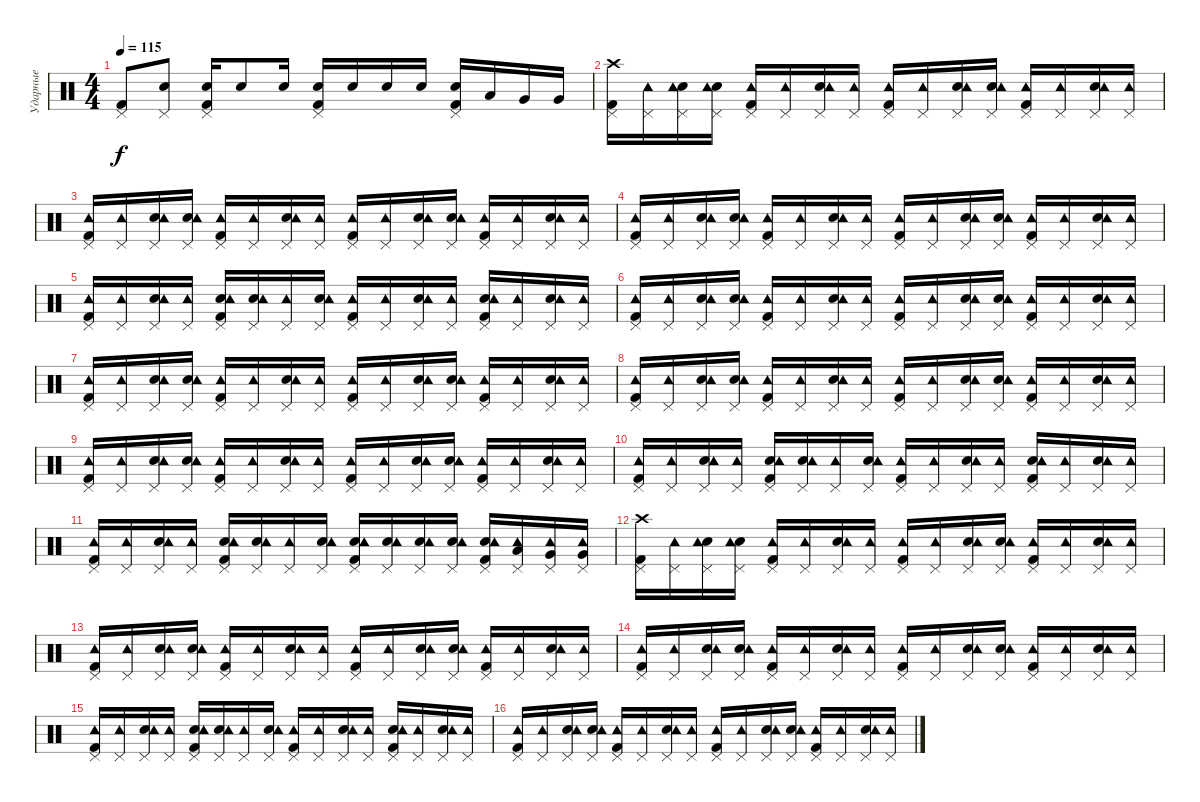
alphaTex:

\track ("Ударные" "Ударные") {instrument percussion}
\staff {score}
\articulation defaults
\ts (4 4)
\tempo 115
\clef neutral
\ks c
("Kick (hit) 2" "Pedal Hi-Hat (hit)").8{dy f} ("Pedal Hi-Hat (hit)" "Snare (hit) 2").8 ("Kick (hit) 2" "Pedal Hi-Hat (hit)" "Snare (hit) 2").16 "Snare (hit) 2".8 "Snare (hit) 2".16 ("Kick (hit) 2" "Pedal Hi-Hat (hit)" "Snare (hit) 2").16 "Snare (hit) 2".16 "Snare (hit) 2".16 "Snare (hit) 2".16 ("Kick (hit) 2" "Pedal Hi-Hat (hit)" "Snare (hit) 2").16 "Low Tom (hit)".16 "Very Low Tom (hit)".16 "Very Low Tom (hit)".16 |
("Kick (hit) 2" "Pedal Hi-Hat (hit)" "Crash high (hit)").16 ("Pedal Hi-Hat (hit)" "Tambourine (hit)").16 ("Pedal Hi-Hat (hit)" "Snare (hit) 2" "Tambourine (hit)").16 ("Pedal Hi-Hat (hit)" "Snare (hit) 2" "Tambourine (hit)").16 ("Kick (hit) 2" "Pedal Hi-Hat (hit)" "Tambourine (hit)").16 ("Pedal Hi-Hat (hit)" "Tambourine (hit)").16 ("Pedal Hi-Hat (hit)" "Snare (hit) 2" "Tambourine (hit)").16 ("Pedal Hi-Hat (hit)" "Tambourine (hit)").16 ("Kick (hit) 2" "Pedal Hi-Hat (hit)" "Tambourine (hit)").16 ("Pedal Hi-Hat (hit)" "Tambourine (hit)").16 ("Pedal Hi-Hat (hit)" "Snare (hit) 2" "Tambourine (hit)").16 ("Pedal Hi-Hat (hit)" "Snare (hit) 2" "Tambourine (hit)").16 ("Kick (hit) 2" "Pedal Hi-Hat (hit)" "Tambourine (hit)").16 ("Pedal Hi-Hat (hit)" "Tambourine (hit)").16 ("Pedal Hi-Hat (hit)" "Snare (hit) 2" "Tambourine (hit)").16 ("Pedal Hi-Hat (hit)" "Tambourine (hit)").16 |
("Kick (hit) 2" "Pedal Hi-Hat (hit)" "Tambourine (hit)").16 ("Pedal Hi-Hat (hit)" "Tambourine (hit)").16 ("Pedal Hi-Hat (hit)" "Snare (hit) 2" "Tambourine (hit)").16 ("Pedal Hi-Hat (hit)" "Snare (hit) 2" "Tambourine (hit)").16 ("Kick (hit) 2" "Pedal Hi-Hat (hit)" "Tambourine (hit)").16 ("Pedal Hi-Hat (hit)" "Tambourine (hit)").16 ("Pedal Hi-Hat (hit)" "Snare (hit) 2" "Tambourine (hit)").16 ("Pedal Hi-Hat (hit)" "Tambourine (hit)").16 ("Kick (hit) 2" "Pedal Hi-Hat (hit)" "Tambourine (hit)").16 ("Pedal Hi-Hat (hit)" "Tambourine (hit)").16 ("Pedal Hi-Hat (hit)" "Snare (hit) 2" "Tambourine (hit)").16 ("Pedal Hi-Hat (hit)" "Snare (hit) 2" "Tambourine (hit)").16 ("Kick (hit) 2" "Pedal Hi-Hat (hit)" "Tambourine (hit)").16 ("Pedal Hi-Hat (hit)" "Tambourine (hit)").16 ("Pedal Hi-Hat (hit)" "Snare (hit) 2" "Tambourine (hit)").16 ("Pedal Hi-Hat (hit)" "Tambourine (hit)").16 |
("Kick (hit) 2" "Pedal Hi-Hat (hit)" "Tambourine (hit)").16 ("Pedal Hi-Hat (hit)" "Tambourine (hit)").16 ("Pedal Hi-Hat (hit)" "Snare (hit) 2" "Tambourine (hit)").16 ("Pedal Hi-Hat (hit)" "Snare (hit) 2" "Tambourine (hit)").16 ("Kick (hit) 2" "Pedal Hi-Hat (hit)" "Tambourine (hit)").16 ("Pedal Hi-Hat (hit)" "Tambourine (hit)").16 ("Pedal Hi-Hat (hit)" "Snare (hit) 2" "Tambourine (hit)").16 ("Pedal Hi-Hat (hit)" "Tambourine (hit)").16 ("Kick (hit) 2" "Pedal Hi-Hat (hit)" "Tambourine (hit)").16 ("Pedal Hi-Hat (hit)" "Tambourine (hit)").16 ("Pedal Hi-Hat (hit)" "Snare (hit) 2" "Tambourine (hit)").16 ("Pedal Hi-Hat (hit)" "Snare (hit) 2" "Tambourine (hit)").16 ("Kick (hit) 2" "Pedal Hi-Hat (hit)" "Tambourine (hit)").16 ("Pedal Hi-Hat (hit)" "Tambourine (hit)").16 ("Pedal Hi-Hat (hit)" "Snare (hit) 2" "Tambourine (hit)").16 ("Pedal Hi-Hat (hit)" "Tambourine (hit)").16 |
("Kick (hit) 2" "Pedal Hi-Hat (hit)" "Tambourine (hit)").16 ("Pedal Hi-Hat (hit)" "Tambourine (hit)").16 ("Pedal Hi-Hat (hit)" "Snare (hit) 2" "Tambourine (hit)").16 ("Pedal Hi-Hat (hit)" "Tambourine (hit)").16 ("Kick (hit) 2" "Pedal Hi-Hat (hit)" "Snare (hit) 2" "Tambourine (hit)").16 ("Pedal Hi-Hat (hit)" "Snare (hit) 2" "Tambourine (hit)").16 ("Pedal Hi-Hat (hit)" "Tambourine (hit)").16 ("Pedal Hi-Hat (hit)" "Snare (hit) 2" "Tambourine (hit)").16 ("Kick (hit) 2" "Pedal Hi-Hat (hit)" "Tambourine (hit)").16 ("Pedal Hi-Hat (hit)" "Tambourine (hit)").16 ("Pedal Hi-Hat (hit)" "Snare (hit) 2" "Tambourine (hit)").16 ("Pedal Hi-Hat (hit)" "Tambourine (hit)").16 ("Kick (hit) 2" "Pedal Hi-Hat (hit)" "Snare (hit) 2" "Tambourine (hit)").16 ("Pedal Hi-Hat (hit)" "Tambourine (hit)").16 ("Pedal Hi-Hat (hit)" "Snare (hit) 2" "Tambourine (hit)").16 ("Pedal Hi-Hat (hit)" "Tambourine (hit)").16 |
("Kick (hit) 2" "Pedal Hi-Hat (hit)" "Tambourine (hit)").16 ("Pedal Hi-Hat (hit)" "Tambourine (hit)").16 ("Pedal Hi-Hat (hit)" "Snare (hit) 2" "Tambourine (hit)").16 ("Pedal Hi-Hat (hit)" "Snare (hit) 2" "Tambourine (hit)").16 ("Kick (hit) 2" "Pedal Hi-Hat (hit)" "Tambourine (hit)").16 ("Pedal Hi-Hat (hit)" "Tambourine (hit)").16 ("Pedal Hi-Hat (hit)" "Snare (hit) 2" "Tambourine (hit)").16 ("Pedal Hi-Hat (hit)" "Tambourine (hit)").16 ("Kick (hit) 2" "Pedal Hi-Hat (hit)" "Tambourine (hit)").16 ("Pedal Hi-Hat (hit)" "Tambourine (hit)").16 ("Pedal Hi-Hat (hit)" "Snare (hit) 2" "Tambourine (hit)").16 ("Pedal Hi-Hat (hit)" "Snare (hit) 2" "Tambourine (hit)").16 ("Kick (hit) 2" "Pedal Hi-Hat (hit)" "Tambourine (hit)").16 ("Pedal Hi-Hat (hit)" "Tambourine (hit)").16 ("Pedal Hi-Hat (hit)" "Snare (hit) 2" "Tambourine (hit)").16 ("Pedal Hi-Hat (hit)" "Tambourine (hit)").16 |
("Kick (hit) 2" "Pedal Hi-Hat (hit)" "Tambourine (hit)").16 ("Pedal Hi-Hat (hit)" "Tambourine (hit)").16 ("Pedal Hi-Hat (hit)" "Snare (hit) 2" "Tambourine (hit)").16 ("Pedal Hi-Hat (hit)" "Snare (hit) 2" "Tambourine (hit)").16 ("Kick (hit) 2" "Pedal Hi-Hat (hit)" "Tambourine (hit)").16 ("Pedal Hi-Hat (hit)" "Tambourine (hit)").16 ("Pedal Hi-Hat (hit)" "Snare (hit) 2" "Tambourine (hit)").16 ("Pedal Hi-Hat (hit)" "Tambourine (hit)").16 ("Kick (hit) 2" "Pedal Hi-Hat (hit)" "Tambourine (hit)").16 ("Pedal Hi-Hat (hit)" "Tambourine (hit)").16 ("Pedal Hi-Hat (hit)" "Snare (hit) 2" "Tambourine (hit)").16 ("Pedal Hi-Hat (hit)" "Snare (hit) 2" "Tambourine (hit)").16 ("Kick (hit) 2" "Pedal Hi-Hat (hit)" "Tambourine (hit)").16 ("Pedal Hi-Hat (hit)" "Tambourine (hit)").16 ("Pedal Hi-Hat (hit)" "Snare (hit) 2" "Tambourine (hit)").16 ("Pedal Hi-Hat (hit)" "Tambourine (hit)").16 |
("Kick (hit) 2" "Pedal Hi-Hat (hit)" "Tambourine (hit)").16 ("Pedal Hi-Hat (hit)" "Tambourine (hit)").16 ("Pedal Hi-Hat (hit)" "Snare (hit) 2" "Tambourine (hit)").16 ("Pedal Hi-Hat (hit)" "Snare (hit) 2" "Tambourine (hit)").16 ("Kick (hit) 2" "Pedal Hi-Hat (hit)" "Tambourine (hit)").16 ("Pedal Hi-Hat (hit)" "Tambourine (hit)").16 ("Pedal Hi-Hat (hit)" "Snare (hit) 2" "Tambourine (hit)").16 ("Pedal Hi-Hat (hit)" "Tambourine (hit)").16 ("Kick (hit) 2" "Pedal Hi-Hat (hit)" "Tambourine (hit)").16 ("Pedal Hi-Hat (hit)" "Tambourine (hit)").16 ("Pedal Hi-Hat (hit)" "Snare (hit) 2" "Tambourine (hit)").16 ("Pedal Hi-Hat (hit)" "Snare (hit) 2" "Tambourine (hit)").16 ("Kick (hit) 2" "Pedal Hi-Hat (hit)" "Tambourine (hit)").16 ("Pedal Hi-Hat (hit)" "Tambourine (hit)").16 ("Pedal Hi-Hat (hit)" "Snare (hit) 2" "Tambourine (hit)").16 ("Pedal Hi-Hat (hit)" "Tambourine (hit)").16 |
("Kick (hit) 2" "Pedal Hi-Hat (hit)" "Tambourine (hit)").16 ("Pedal Hi-Hat (hit)" "Tambourine (hit)").16 ("Pedal Hi-Hat (hit)" "Snare (hit) 2" "Tambourine (hit)").16 ("Pedal Hi-Hat (hit)" "Snare (hit) 2" "Tambourine (hit)").16 ("Kick (hit) 2" "Pedal Hi-Hat (hit)" "Tambourine (hit)").16 ("Pedal Hi-Hat (hit)" "Tambourine (hit)").16 ("Pedal Hi-Hat (hit)" "Snare (hit) 2" "Tambourine (hit)").16 ("Pedal Hi-Hat (hit)" "Tambourine (hit)").16 ("Kick (hit) 2" "Pedal Hi-Hat (hit)" "Tambourine (hit)").16 ("Pedal Hi-Hat (hit)" "Tambourine (hit)").16 ("Pedal Hi-Hat (hit)" "Snare (hit) 2" "Tambourine (hit)").16 ("Pedal Hi-Hat (hit)" "Snare (hit) 2" "Tambourine (hit)").16 ("Kick (hit) 2" "Pedal Hi-Hat (hit)" "Tambourine (hit)").16 ("Pedal Hi-Hat (hit)" "Tambourine (hit)").16 ("Pedal Hi-Hat (hit)" "Snare (hit) 2" "Tambourine (hit)").16 ("Pedal Hi-Hat (hit)" "Tambourine (hit)").16 |
("Kick (hit) 2" "Pedal Hi-Hat (hit)" "Tambourine (hit)").16 ("Pedal Hi-Hat (hit)" "Tambourine (hit)").16 ("Pedal Hi-Hat (hit)" "Snare (hit) 2" "Tambourine (hit)").16 ("Pedal Hi-Hat (hit)" "Tambourine (hit)").16 ("Kick (hit) 2" "Pedal Hi-Hat (hit)" "Snare (hit) 2" "Tambourine (hit)").16 ("Pedal Hi-Hat (hit)" "Snare (hit) 2" "Tambourine (hit)").16 ("Pedal Hi-Hat (hit)" "Tambourine (hit)").16 ("Pedal Hi-Hat (hit)" "Snare (hit) 2" "Tambourine (hit)").16 ("Kick (hit) 2" "Pedal Hi-Hat (hit)" "Tambourine (hit)").16 ("Pedal Hi-Hat (hit)" "Tambourine (hit)").16 ("Pedal Hi-Hat (hit)" "Snare (hit) 2" "Tambourine (hit)").16 ("Pedal Hi-Hat (hit)" "Tambourine (hit)").16 ("Kick (hit) 2" "Pedal Hi-Hat (hit)" "Snare (hit) 2" "Tambourine (hit)").16 ("Pedal Hi-Hat (hit)" "Tambourine (hit)").16 ("Pedal Hi-Hat (hit)" "Snare (hit) 2" "Tambourine (hit)").16 ("Pedal Hi-Hat (hit)" "Tambourine (hit)").16 |
("Kick (hit) 2" "Pedal Hi-Hat (hit)" "Tambourine (hit)").16 ("Pedal Hi-Hat (hit)" "Tambourine (hit)").16 ("Pedal Hi-Hat (hit)" "Snare (hit) 2" "Tambourine (hit)").16 ("Pedal Hi-Hat (hit)" "Tambourine (hit)").16 ("Kick (hit) 2" "Pedal Hi-Hat (hit)" "Snare (hit) 2" "Tambourine (hit)").16 ("Pedal Hi-Hat (hit)" "Snare (hit) 2" "Tambourine (hit)").16 ("Pedal Hi-Hat (hit)" "Tambourine (hit)").16 ("Pedal Hi-Hat (hit)" "Snare (hit) 2" "Tambourine (hit)").16 ("Kick (hit) 2" "Pedal Hi-Hat (hit)" "Snare (hit) 2" "Tambourine (hit)").16 ("Pedal Hi-Hat (hit)" "Snare (hit) 2" "Tambourine (hit)").16 ("Pedal Hi-Hat (hit)" "Snare (hit) 2" "Tambourine (hit)").16 ("Pedal Hi-Hat (hit)" "Snare (hit) 2" "Tambourine (hit)").16 ("Kick (hit) 2" "Pedal Hi-Hat (hit)" "Snare (hit) 2" "Tambourine (hit)").16 ("Pedal Hi-Hat (hit)" "Low Tom (hit)" "Tambourine (hit)").16 ("Pedal Hi-Hat (hit)" "Very Low Tom (hit)" "Tambourine (hit)").16 ("Pedal Hi-Hat (hit)" "Very Low Tom (hit)" "Tambourine (hit)").16 |
("Kick (hit) 2" "Pedal Hi-Hat (hit)" "Crash high (hit)").16 ("Pedal Hi-Hat (hit)" "Tambourine (hit)").16 ("Pedal Hi-Hat (hit)" "Snare (hit) 2" "Tambourine (hit)").16 ("Pedal Hi-Hat (hit)" "Snare (hit) 2" "Tambourine (hit)").16 ("Kick (hit) 2" "Pedal Hi-Hat (hit)" "Tambourine (hit)").16 ("Pedal Hi-Hat (hit)" "Tambourine (hit)").16 ("Pedal Hi-Hat (hit)" "Snare (hit) 2" "Tambourine (hit)").16 ("Pedal Hi-Hat (hit)" "Tambourine (hit)").16 ("Kick (hit) 2" "Pedal Hi-Hat (hit)" "Tambourine (hit)").16 ("Pedal Hi-Hat (hit)" "Tambourine (hit)").16 ("Pedal Hi-Hat (hit)" "Snare (hit) 2" "Tambourine (hit)").16 ("Pedal Hi-Hat (hit)" "Snare (hit) 2" "Tambourine (hit)").16 ("Kick (hit) 2" "Pedal Hi-Hat (hit)" "Tambourine (hit)").16 ("Pedal Hi-Hat (hit)" "Tambourine (hit)").16 ("Pedal Hi-Hat (hit)" "Snare (hit) 2" "Tambourine (hit)").16 ("Pedal Hi-Hat (hit)" "Tambourine (hit)").16 |
("Kick (hit) 2" "Pedal Hi-Hat (hit)" "Tambourine (hit)").16 ("Pedal Hi-Hat (hit)" "Tambourine (hit)").16 ("Pedal Hi-Hat (hit)" "Snare (hit) 2" "Tambourine (hit)").16 ("Pedal Hi-Hat (hit)" "Snare (hit) 2" "Tambourine (hit)").16 ("Kick (hit) 2" "Pedal Hi-Hat (hit)" "Tambourine (hit)").16 ("Pedal Hi-Hat (hit)" "Tambourine (hit)").16 ("Pedal Hi-Hat (hit)" "Snare (hit) 2" "Tambourine (hit)").16 ("Pedal Hi-Hat (hit)" "Tambourine (hit)").16 ("Kick (hit) 2" "Pedal Hi-Hat (hit)" "Tambourine (hit)").16 ("Pedal Hi-Hat (hit)" "Tambourine (hit)").16 ("Pedal Hi-Hat (hit)" "Snare (hit) 2" "Tambourine (hit)").16 ("Pedal Hi-Hat (hit)" "Snare (hit) 2" "Tambourine (hit)").16 ("Kick (hit) 2" "Pedal Hi-Hat (hit)" "Tambourine (hit)").16 ("Pedal Hi-Hat (hit)" "Tambourine (hit)").16 ("Pedal Hi-Hat (hit)" "Snare (hit) 2" "Tambourine (hit)").16 ("Pedal Hi-Hat (hit)" "Tambourine (hit)").16 |
("Kick (hit) 2" "Pedal Hi-Hat (hit)" "Tambourine (hit)").16 ("Pedal Hi-Hat (hit)" "Tambourine (hit)").16 ("Pedal Hi-Hat (hit)" "Snare (hit) 2" "Tambourine (hit)").16 ("Pedal Hi-Hat (hit)" "Snare (hit) 2" "Tambourine (hit)").16 ("Kick (hit) 2" "Pedal Hi-Hat (hit)" "Tambourine (hit)").16 ("Pedal Hi-Hat (hit)" "Tambourine (hit)").16 ("Pedal Hi-Hat (hit)" "Snare (hit) 2" "Tambourine (hit)").16 ("Pedal Hi-Hat (hit)" "Tambourine (hit)").16 ("Kick (hit) 2" "Pedal Hi-Hat (hit)" "Tambourine (hit)").16 ("Pedal Hi-Hat (hit)" "Tambourine (hit)").16 ("Pedal Hi-Hat (hit)" "Snare (hit) 2" "Tambourine (hit)").16 ("Pedal Hi-Hat (hit)" "Snare (hit) 2" "Tambourine (hit)").16 ("Kick (hit) 2" "Pedal Hi-Hat (hit)" "Tambourine (hit)").16 ("Pedal Hi-Hat (hit)" "Tambourine (hit)").16 ("Pedal Hi-Hat (hit)" "Snare (hit) 2" "Tambourine (hit)").16 ("Pedal Hi-Hat (hit)" "Tambourine (hit)").16 |
("Kick (hit) 2" "Pedal Hi-Hat (hit)" "Tambourine (hit)").16 ("Pedal Hi-Hat (hit)" "Tambourine (hit)").16 ("Pedal Hi-Hat (hit)" "Snare (hit) 2" "Tambourine (hit)").16 ("Pedal Hi-Hat (hit)" "Tambourine (hit)").16 ("Kick (hit) 2" "Pedal Hi-Hat (hit)" "Snare (hit) 2" "Tambourine (hit)").16 ("Pedal Hi-Hat (hit)" "Snare (hit) 2" "Tambourine (hit)").16 ("Pedal Hi-Hat (hit)" "Tambourine (hit)").16 ("Pedal Hi-Hat (hit)" "Snare (hit) 2" "Tambourine (hit)").16 ("Kick (hit) 2" "Pedal Hi-Hat (hit)" "Tambourine (hit)").16 ("Pedal Hi-Hat (hit)" "Tambourine (hit)").16 ("Pedal Hi-Hat (hit)" "Snare (hit) 2" "Tambourine (hit)").16 ("Pedal Hi-Hat (hit)" "Tambourine (hit)").16 ("Kick (hit) 2" "Pedal Hi-Hat (hit)" "Snare (hit) 2" "Tambourine (hit)").16 ("Pedal Hi-Hat (hit)" "Tambourine (hit)").16 ("Pedal Hi-Hat (hit)" "Snare (hit) 2" "Tambourine (hit)").16 ("Pedal Hi-Hat (hit)" "Tambourine (hit)").16 |
("Kick (hit) 2" "Pedal Hi-Hat (hit)" "Tambourine (hit)").16 ("Pedal Hi-Hat (hit)" "Tambourine (hit)").16 ("Pedal Hi-Hat (hit)" "Snare (hit) 2" "Tambourine (hit)").16 ("Pedal Hi-Hat (hit)" "Snare (hit) 2" "Tambourine (hit)").16 ("Kick (hit) 2" "Pedal Hi-Hat (hit)" "Tambourine (hit)").16 ("Pedal Hi-Hat (hit)" "Tambourine (hit)").16 ("Pedal Hi-Hat (hit)" "Snare (hit) 2" "Tambourine (hit)").16 ("Pedal Hi-Hat (hit)" "Tambourine (hit)").16 ("Kick (hit) 2" "Pedal Hi-Hat (hit)" "Tambourine (hit)").16 ("Pedal Hi-Hat (hit)" "Tambourine (hit)").16 ("Pedal Hi-Hat (hit)" "Snare (hit) 2" "Tambourine (hit)").16 ("Pedal Hi-Hat (hit)" "Snare (hit) 2" "Tambourine (hit)").16 ("Kick (hit) 2" "Pedal Hi-Hat (hit)" "Tambourine (hit)").16 ("Pedal Hi-Hat (hit)" "Tambourine (hit)").16 ("Pedal Hi-Hat (hit)" "Snare (hit) 2" "Tambourine (hit)").16 ("Pedal Hi-Hat (hit)" "Tambourine (hit)").16
